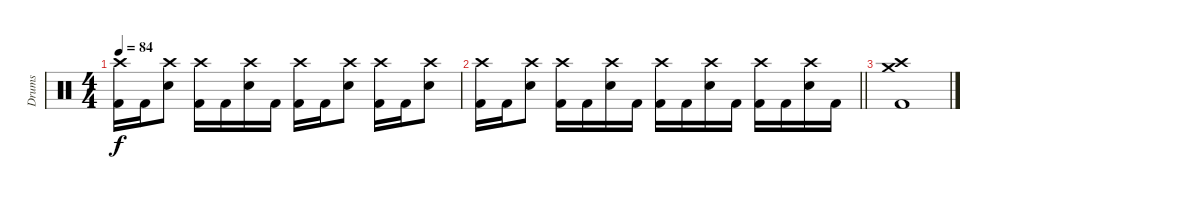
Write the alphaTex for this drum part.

\track ("Drums" "Drums") {instrument percussion}
\staff {score}
\articulation defaults
\ts (4 4)
\tempo 84
\clef neutral
\ks c
("Crash high (hit)" "Kick (hit) 2").16{dy f} "Kick (hit) 2".16 ("Crash high (hit)" "Electric Snare (hit)").8 ("Crash high (hit)" "Kick (hit) 2").16 "Kick (hit) 2".16 ("Crash high (hit)" "Electric Snare (hit)").16 "Kick (hit) 2".16 ("Crash high (hit)" "Kick (hit) 2").16 "Kick (hit) 2".16 ("Crash high (hit)" "Electric Snare (hit)").8 ("Crash high (hit)" "Kick (hit) 2").16 "Kick (hit) 2".16 ("Crash high (hit)" "Electric Snare (hit)").8 |
\barLineRight lightlight
("Crash high (hit)" "Kick (hit) 2").16 "Kick (hit) 2".16 ("Crash high (hit)" "Electric Snare (hit)").8 ("Crash high (hit)" "Kick (hit) 2").16 "Kick (hit) 2".16 ("Crash high (hit)" "Electric Snare (hit)").16 "Kick (hit) 2".16 ("Crash high (hit)" "Kick (hit) 2").16 "Kick (hit) 2".16 ("Crash high (hit)" "Electric Snare (hit)").16 "Kick (hit) 2".16 ("Crash high (hit)" "Kick (hit) 2").16 "Kick (hit) 2".16 ("Crash high (hit)" "Electric Snare (hit)").16 "Kick (hit) 2".16 |
("Crash medium (hit)" "Crash high (hit)" "Kick (hit) 2").1
